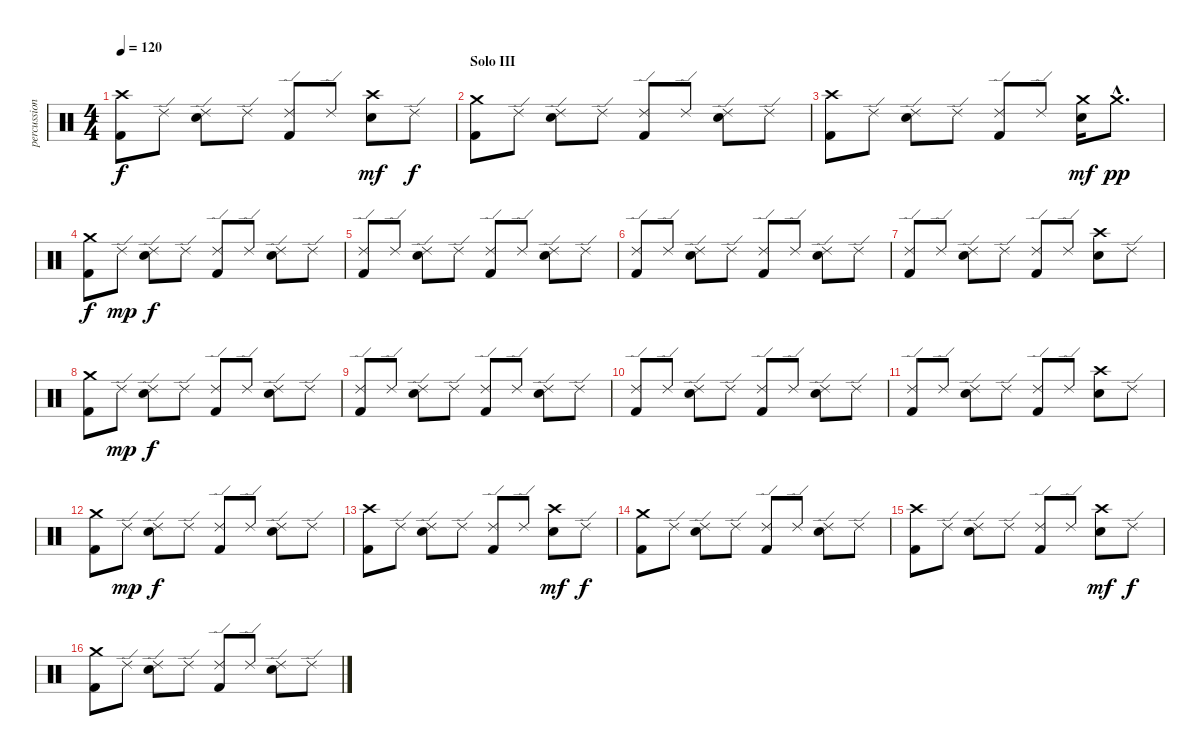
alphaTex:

\track ("percussion" "percussion") {instrument percussion}
\staff {score}
\articulation defaults
\ts (4 4)
\tempo 120
\clef neutral
\ks c
("Crash high (hit)" "Kick (hit) 2").8{dy f} "Ride (edge) 2".8 ("Ride (edge) 2" "Electric Snare (hit)").8 "Ride (edge) 2".8 ("Ride (edge) 2" "Kick (hit) 2").8 "Ride (edge) 2".8 ("Crash high (hit)" "Electric Snare (hit)").8{dy mf} "Ride (edge) 2".8{dy f} |
\section ("" "Solo III")
("Crash medium (hit)" "Kick (hit) 2").8 "Ride (edge) 2".8 ("Ride (edge) 2" "Electric Snare (hit)").8 "Ride (edge) 2".8 ("Ride (edge) 2" "Kick (hit) 2").8 "Ride (edge) 2".8 ("Ride (edge) 2" "Electric Snare (hit)").8 "Ride (edge) 2".8 |
("Crash high (hit)" "Kick (hit) 2").8 "Ride (edge) 2".8 ("Ride (edge) 2" "Electric Snare (hit)").8 "Ride (edge) 2".8 ("Ride (edge) 2" "Kick (hit) 2").8 "Ride (edge) 2".8 ("Crash medium (hit)" "Electric Snare (hit)").16{dy mf} "Crash medium (hit)"{hac}.8{d dy pp} |
("Crash medium (hit)" "Kick (hit) 2").8{dy f} "Ride (edge) 2".8{dy mp} ("Ride (edge) 2" "Electric Snare (hit)").8{dy f} "Ride (edge) 2".8 ("Ride (edge) 2" "Kick (hit) 2").8 "Ride (edge) 2".8 ("Ride (edge) 2" "Electric Snare (hit)").8 "Ride (edge) 2".8 |
("Ride (edge) 2" "Kick (hit) 2").8 "Ride (edge) 2".8 ("Ride (edge) 2" "Electric Snare (hit)").8 "Ride (edge) 2".8 ("Ride (edge) 2" "Kick (hit) 2").8 "Ride (edge) 2".8 ("Ride (edge) 2" "Electric Snare (hit)").8 "Ride (edge) 2".8 |
("Ride (edge) 2" "Kick (hit) 2").8 "Ride (edge) 2".8 ("Ride (edge) 2" "Electric Snare (hit)").8 "Ride (edge) 2".8 ("Ride (edge) 2" "Kick (hit) 2").8 "Ride (edge) 2".8 ("Ride (edge) 2" "Electric Snare (hit)").8 "Ride (edge) 2".8 |
("Ride (edge) 2" "Kick (hit) 2").8 "Ride (edge) 2".8 ("Ride (edge) 2" "Electric Snare (hit)").8 "Ride (edge) 2".8 ("Ride (edge) 2" "Kick (hit) 2").8 "Ride (edge) 2".8 ("Crash high (hit)" "Electric Snare (hit)").8 "Ride (edge) 2".8 |
("Crash medium (hit)" "Kick (hit) 2").8 "Ride (edge) 2".8{dy mp} ("Ride (edge) 2" "Electric Snare (hit)").8{dy f} "Ride (edge) 2".8 ("Ride (edge) 2" "Kick (hit) 2").8 "Ride (edge) 2".8 ("Ride (edge) 2" "Electric Snare (hit)").8 "Ride (edge) 2".8 |
("Ride (edge) 2" "Kick (hit) 2").8 "Ride (edge) 2".8 ("Ride (edge) 2" "Electric Snare (hit)").8 "Ride (edge) 2".8 ("Ride (edge) 2" "Kick (hit) 2").8 "Ride (edge) 2".8 ("Ride (edge) 2" "Electric Snare (hit)").8 "Ride (edge) 2".8 |
("Ride (edge) 2" "Kick (hit) 2").8 "Ride (edge) 2".8 ("Ride (edge) 2" "Electric Snare (hit)").8 "Ride (edge) 2".8 ("Ride (edge) 2" "Kick (hit) 2").8 "Ride (edge) 2".8 ("Ride (edge) 2" "Electric Snare (hit)").8 "Ride (edge) 2".8 |
("Ride (edge) 2" "Kick (hit) 2").8 "Ride (edge) 2".8 ("Ride (edge) 2" "Electric Snare (hit)").8 "Ride (edge) 2".8 ("Ride (edge) 2" "Kick (hit) 2").8 "Ride (edge) 2".8 ("Crash high (hit)" "Electric Snare (hit)").8 "Ride (edge) 2".8 |
("Crash medium (hit)" "Kick (hit) 2").8 "Ride (edge) 2".8{dy mp} ("Ride (edge) 2" "Electric Snare (hit)").8{dy f} "Ride (edge) 2".8 ("Ride (edge) 2" "Kick (hit) 2").8 "Ride (edge) 2".8 ("Ride (edge) 2" "Electric Snare (hit)").8 "Ride (edge) 2".8 |
("Crash high (hit)" "Kick (hit) 2").8 "Ride (edge) 2".8 ("Ride (edge) 2" "Electric Snare (hit)").8 "Ride (edge) 2".8 ("Ride (edge) 2" "Kick (hit) 2").8 "Ride (edge) 2".8 ("Crash high (hit)" "Electric Snare (hit)").8{dy mf} "Ride (edge) 2".8{dy f} |
("Crash medium (hit)" "Kick (hit) 2").8 "Ride (edge) 2".8 ("Ride (edge) 2" "Electric Snare (hit)").8 "Ride (edge) 2".8 ("Ride (edge) 2" "Kick (hit) 2").8 "Ride (edge) 2".8 ("Ride (edge) 2" "Electric Snare (hit)").8 "Ride (edge) 2".8 |
("Crash high (hit)" "Kick (hit) 2").8 "Ride (edge) 2".8 ("Ride (edge) 2" "Electric Snare (hit)").8 "Ride (edge) 2".8 ("Ride (edge) 2" "Kick (hit) 2").8 "Ride (edge) 2".8 ("Crash high (hit)" "Electric Snare (hit)").8{dy mf} "Ride (edge) 2".8{dy f} |
("Crash medium (hit)" "Kick (hit) 2").8 "Ride (edge) 2".8 ("Ride (edge) 2" "Electric Snare (hit)").8 "Ride (edge) 2".8 ("Ride (edge) 2" "Kick (hit) 2").8 "Ride (edge) 2".8 ("Ride (edge) 2" "Electric Snare (hit)").8 "Ride (edge) 2".8
